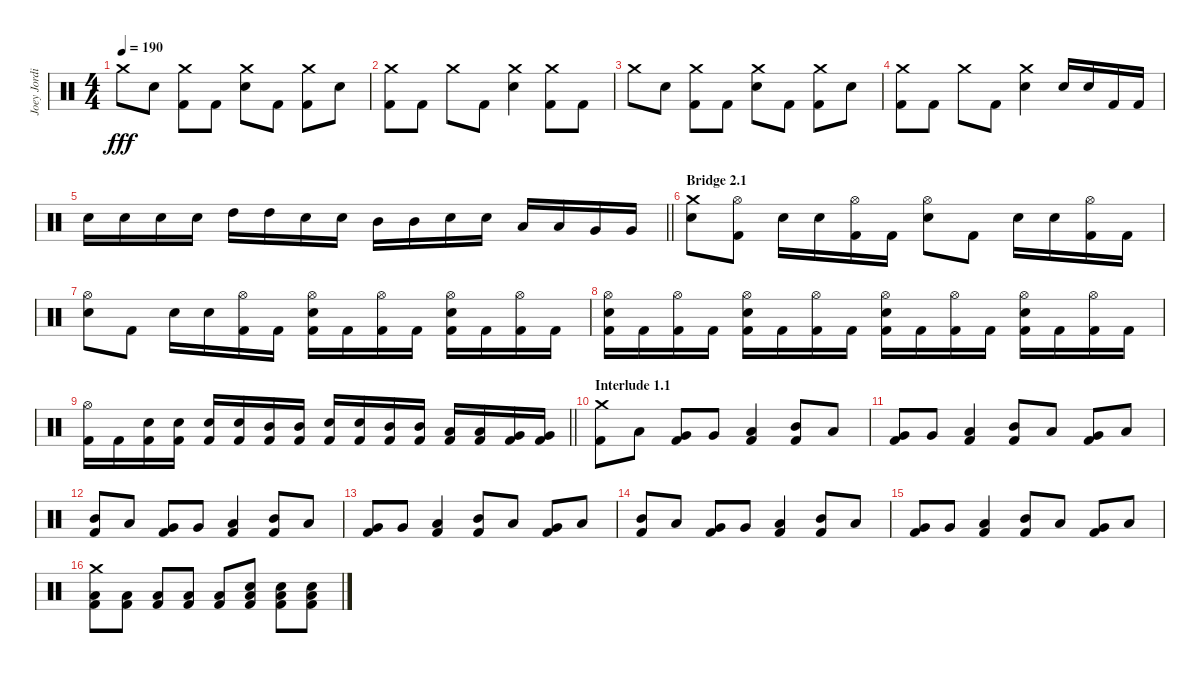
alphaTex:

\track ("Joey Jordison" "Joey Jordi") {instrument percussion}
\staff {score}
\articulation defaults
\ts (4 4)
\tempo 190
\clef neutral
\ks c "Crash medium (hit)".8{dy fff} "Electric Snare (hit)".8
("Crash medium (hit)" "Kick (hit) 2").8 "Kick (hit) 2".8 ("Crash medium (hit)" "Electric Snare (hit)").8 "Kick (hit) 2".8 ("Crash medium (hit)" "Kick (hit) 2").8 "Electric Snare (hit)".8 |
("Crash medium (hit)" "Kick (hit) 2").8 "Kick (hit) 2".8 "Crash medium (hit)".8 "Kick (hit) 2".8 ("Crash medium (hit)" "Electric Snare (hit)").4 ("Crash medium (hit)" "Kick (hit) 2").8 "Kick (hit) 2".8 |
"Crash medium (hit)".8 "Electric Snare (hit)".8 ("Crash medium (hit)" "Kick (hit) 2").8 "Kick (hit) 2".8 ("Crash medium (hit)" "Electric Snare (hit)").8 "Kick (hit) 2".8 ("Crash medium (hit)" "Kick (hit) 2").8 "Electric Snare (hit)".8 |
("Crash medium (hit)" "Kick (hit) 2").8 "Kick (hit) 2".8 "Crash medium (hit)".8 "Kick (hit) 2".8 ("Crash medium (hit)" "Electric Snare (hit)").4 "Electric Snare (hit)".16 "Electric Snare (hit)".16 "Kick (hit) 2".16 "Kick (hit) 2".16 |
\barLineRight lightlight "Electric Snare (hit)".16 "Electric Snare (hit)".16 "Electric Snare (hit)".16 "Electric Snare (hit)".16 "High Tom (hit)".16 "High Tom (hit)".16 "Electric Snare (hit)".16 "Electric Snare (hit)".16 "Mid Tom (hit)".16 "Mid Tom (hit)".16 "Electric Snare (hit)".16 "Electric Snare (hit)".16 "Low Tom (hit)".16 "Low Tom (hit)".16 "Very Low Tom (hit)".16 "Very Low Tom (hit)".16
|
\section ("" "Bridge 2.1")
("Crash medium (hit)" "Electric Snare (hit)").8 ("Hi-Hat (open)" "Kick (hit) 2").8 "Electric Snare (hit)".16 "Electric Snare (hit)".16 ("Hi-Hat (open)" "Kick (hit) 2").16 "Kick (hit) 2".16 ("Hi-Hat (open)" "Electric Snare (hit)").8 "Kick (hit) 2".8 "Electric Snare (hit)".16 "Electric Snare (hit)".16 ("Hi-Hat (open)" "Kick (hit) 2").16 "Kick (hit) 2".16 |
("Hi-Hat (open)" "Electric Snare (hit)").8 "Kick (hit) 2".8 "Electric Snare (hit)".16 "Electric Snare (hit)".16 ("Hi-Hat (open)" "Kick (hit) 2").16 "Kick (hit) 2".16 ("Hi-Hat (open)" "Electric Snare (hit)" "Kick (hit) 2").16 "Kick (hit) 2".16 ("Hi-Hat (open)" "Kick (hit) 2").16 "Kick (hit) 2".16 ("Hi-Hat (open)" "Electric Snare (hit)" "Kick (hit) 2").16 "Kick (hit) 2".16 ("Hi-Hat (open)" "Kick (hit) 2").16 "Kick (hit) 2".16 |
("Hi-Hat (open)" "Electric Snare (hit)" "Kick (hit) 2").16 "Kick (hit) 2".16 ("Hi-Hat (open)" "Kick (hit) 2").16 "Kick (hit) 2".16 ("Hi-Hat (open)" "Electric Snare (hit)" "Kick (hit) 2").16 "Kick (hit) 2".16 ("Hi-Hat (open)" "Kick (hit) 2").16 "Kick (hit) 2".16 ("Hi-Hat (open)" "Electric Snare (hit)" "Kick (hit) 2").16 "Kick (hit) 2".16 ("Hi-Hat (open)" "Kick (hit) 2").16 "Kick (hit) 2".16 ("Hi-Hat (open)" "Electric Snare (hit)" "Kick (hit) 2").16 "Kick (hit) 2".16 ("Hi-Hat (open)" "Kick (hit) 2").16 "Kick (hit) 2".16 |
\barLineRight lightlight
("Hi-Hat (open)" "Kick (hit) 2").16 "Kick (hit) 2".16 ("Electric Snare (hit)" "Kick (hit) 2").16 ("Electric Snare (hit)" "Kick (hit) 2").16 ("Electric Snare (hit)" "Kick (hit) 2").16 ("Electric Snare (hit)" "Kick (hit) 2").16 ("Mid Tom (hit)" "Kick (hit) 2").16 ("Mid Tom (hit)" "Kick (hit) 2").16 ("Electric Snare (hit)" "Kick (hit) 2").16 ("Electric Snare (hit)" "Kick (hit) 2").16 ("Mid Tom (hit)" "Kick (hit) 2").16 ("Mid Tom (hit)" "Kick (hit) 2").16 ("Low Tom (hit)" "Kick (hit) 2").16 ("Low Tom (hit)" "Kick (hit) 2").16 ("Very Low Tom (hit)" "Kick (hit) 2").16 ("Very Low Tom (hit)" "Kick (hit) 2").16 |
\section ("" "Interlude 1.1")
("Crash medium (hit)" "Kick (hit) 2").8 "Low Tom (hit)".8 ("Very Low Tom (hit)" "Kick (hit) 2").8 "Very Low Tom (hit)".8 ("Low Floor Tom (hit)" "Kick (hit) 2").4 ("Mid Tom (hit)" "Kick (hit) 2").8 "Low Tom (hit)".8 |
("Very Low Tom (hit)" "Kick (hit) 2").8 "Very Low Tom (hit)".8 ("Low Floor Tom (hit)" "Kick (hit) 2").4 ("Mid Tom (hit)" "Kick (hit) 2").8 "Low Tom (hit)".8 ("Very Low Tom (hit)" "Kick (hit) 2").8 "Low Floor Tom (hit)".8 |
("Mid Tom (hit)" "Kick (hit) 2").8 "Low Tom (hit)".8 ("Very Low Tom (hit)" "Kick (hit) 2").8 "Very Low Tom (hit)".8 ("Low Floor Tom (hit)" "Kick (hit) 2").4 ("Mid Tom (hit)" "Kick (hit) 2").8 "Low Tom (hit)".8 |
("Very Low Tom (hit)" "Kick (hit) 2").8 "Very Low Tom (hit)".8 ("Low Floor Tom (hit)" "Kick (hit) 2").4 ("Mid Tom (hit)" "Kick (hit) 2").8 "Low Tom (hit)".8 ("Very Low Tom (hit)" "Kick (hit) 2").8 "Low Floor Tom (hit)".8 |
("Mid Tom (hit)" "Kick (hit) 2").8 "Low Tom (hit)".8 ("Very Low Tom (hit)" "Kick (hit) 2").8 "Very Low Tom (hit)".8 ("Low Floor Tom (hit)" "Kick (hit) 2").4 ("Mid Tom (hit)" "Kick (hit) 2").8 "Low Tom (hit)".8 |
("Very Low Tom (hit)" "Kick (hit) 2").8 "Very Low Tom (hit)".8 ("Low Floor Tom (hit)" "Kick (hit) 2").4 ("Mid Tom (hit)" "Kick (hit) 2").8 "Low Tom (hit)".8 ("Very Low Tom (hit)" "Kick (hit) 2").8 "Low Floor Tom (hit)".8 |
("Crash medium (hit)" "Low Floor Tom (hit)" "Kick (hit) 2").8 ("Low Floor Tom (hit)" "Kick (hit) 2").8 ("Low Floor Tom (hit)" "Kick (hit) 2").8 ("Low Floor Tom (hit)" "Kick (hit) 2").8 ("Low Floor Tom (hit)" "Kick (hit) 2").8 ("Electric Snare (hit)" "Low Floor Tom (hit)" "Kick (hit) 2").8 ("Electric Snare (hit)" "Low Floor Tom (hit)" "Kick (hit) 2").8 ("Electric Snare (hit)" "Low Floor Tom (hit)" "Kick (hit) 2").8
